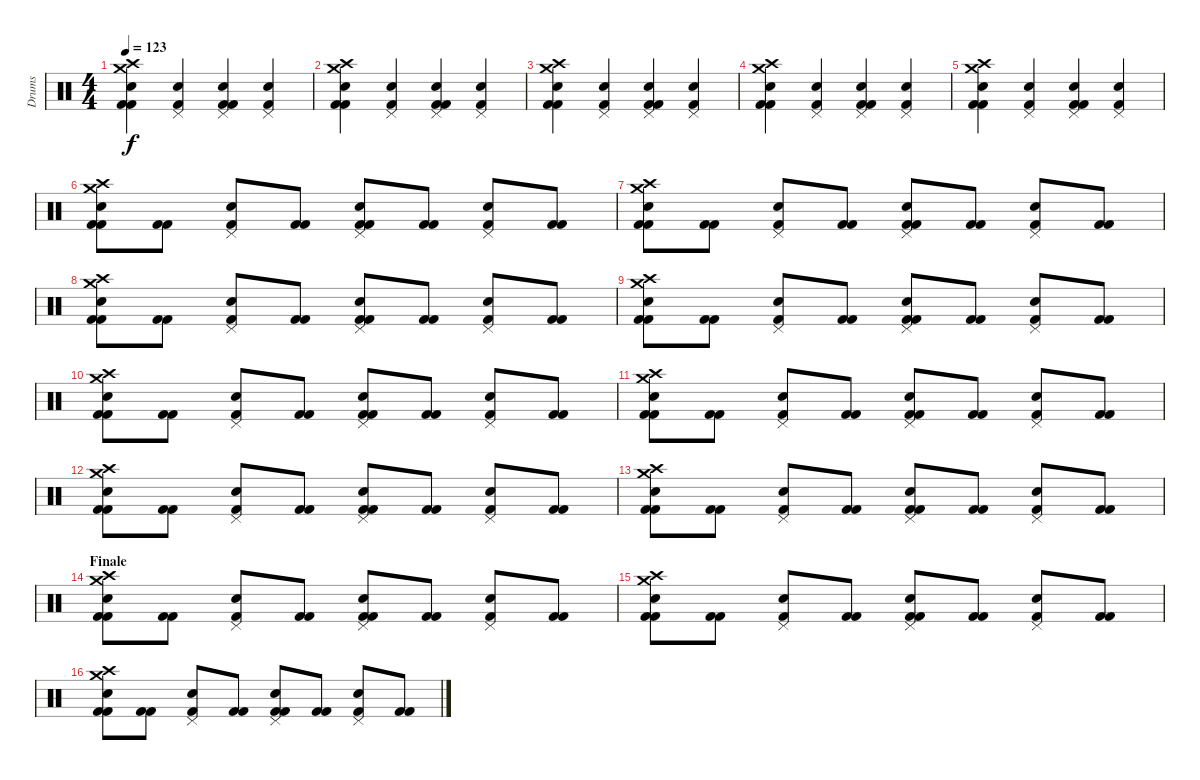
\track ("Drums" "Drums") {instrument percussion}
\staff {score}
\articulation defaults
\ts (4 4)
\tempo 123
\clef neutral
\ks c
("Crash medium (hit)" "Crash high (hit)" "Snare (hit) 2" "Kick (hit) 2" "Kick (hit) 2").4{dy f} ("Pedal Hi-Hat (hit)" "Snare (hit) 2" "Kick (hit) 2").4 ("Pedal Hi-Hat (hit)" "Snare (hit) 2" "Kick (hit) 2" "Kick (hit) 2").4 ("Pedal Hi-Hat (hit)" "Snare (hit) 2" "Kick (hit) 2").4 |
("Crash medium (hit)" "Crash high (hit)" "Snare (hit) 2" "Kick (hit) 2" "Kick (hit) 2").4 ("Pedal Hi-Hat (hit)" "Snare (hit) 2" "Kick (hit) 2").4 ("Pedal Hi-Hat (hit)" "Snare (hit) 2" "Kick (hit) 2" "Kick (hit) 2").4 ("Pedal Hi-Hat (hit)" "Snare (hit) 2" "Kick (hit) 2").4 |
("Crash medium (hit)" "Crash high (hit)" "Snare (hit) 2" "Kick (hit) 2" "Kick (hit) 2").4 ("Pedal Hi-Hat (hit)" "Snare (hit) 2" "Kick (hit) 2").4 ("Pedal Hi-Hat (hit)" "Snare (hit) 2" "Kick (hit) 2" "Kick (hit) 2").4 ("Pedal Hi-Hat (hit)" "Snare (hit) 2" "Kick (hit) 2").4 |
("Crash medium (hit)" "Crash high (hit)" "Snare (hit) 2" "Kick (hit) 2" "Kick (hit) 2").4 ("Pedal Hi-Hat (hit)" "Snare (hit) 2" "Kick (hit) 2").4 ("Pedal Hi-Hat (hit)" "Snare (hit) 2" "Kick (hit) 2" "Kick (hit) 2").4 ("Pedal Hi-Hat (hit)" "Snare (hit) 2" "Kick (hit) 2").4 |
("Crash medium (hit)" "Crash high (hit)" "Snare (hit) 2" "Kick (hit) 2" "Kick (hit) 2").4 ("Pedal Hi-Hat (hit)" "Snare (hit) 2" "Kick (hit) 2").4 ("Pedal Hi-Hat (hit)" "Snare (hit) 2" "Kick (hit) 2" "Kick (hit) 2").4 ("Pedal Hi-Hat (hit)" "Snare (hit) 2" "Kick (hit) 2").4 |
("Crash medium (hit)" "Crash high (hit)" "Snare (hit) 2" "Kick (hit) 2" "Kick (hit) 2").8 ("Kick (hit) 2" "Kick (hit) 2").8 ("Pedal Hi-Hat (hit)" "Snare (hit) 2" "Kick (hit) 2").8 ("Kick (hit) 2" "Kick (hit) 2").8 ("Pedal Hi-Hat (hit)" "Snare (hit) 2" "Kick (hit) 2" "Kick (hit) 2").8 ("Kick (hit) 2" "Kick (hit) 2").8 ("Pedal Hi-Hat (hit)" "Snare (hit) 2" "Kick (hit) 2").8 ("Kick (hit) 2" "Kick (hit) 2").8 |
("Crash medium (hit)" "Crash high (hit)" "Snare (hit) 2" "Kick (hit) 2" "Kick (hit) 2").8 ("Kick (hit) 2" "Kick (hit) 2").8 ("Pedal Hi-Hat (hit)" "Snare (hit) 2" "Kick (hit) 2").8 ("Kick (hit) 2" "Kick (hit) 2").8 ("Pedal Hi-Hat (hit)" "Snare (hit) 2" "Kick (hit) 2" "Kick (hit) 2").8 ("Kick (hit) 2" "Kick (hit) 2").8 ("Pedal Hi-Hat (hit)" "Snare (hit) 2" "Kick (hit) 2").8 ("Kick (hit) 2" "Kick (hit) 2").8 |
("Crash medium (hit)" "Crash high (hit)" "Snare (hit) 2" "Kick (hit) 2" "Kick (hit) 2").8 ("Kick (hit) 2" "Kick (hit) 2").8 ("Pedal Hi-Hat (hit)" "Snare (hit) 2" "Kick (hit) 2").8 ("Kick (hit) 2" "Kick (hit) 2").8 ("Pedal Hi-Hat (hit)" "Snare (hit) 2" "Kick (hit) 2" "Kick (hit) 2").8 ("Kick (hit) 2" "Kick (hit) 2").8 ("Pedal Hi-Hat (hit)" "Snare (hit) 2" "Kick (hit) 2").8 ("Kick (hit) 2" "Kick (hit) 2").8 |
("Crash medium (hit)" "Crash high (hit)" "Snare (hit) 2" "Kick (hit) 2" "Kick (hit) 2").8 ("Kick (hit) 2" "Kick (hit) 2").8 ("Pedal Hi-Hat (hit)" "Snare (hit) 2" "Kick (hit) 2").8 ("Kick (hit) 2" "Kick (hit) 2").8 ("Pedal Hi-Hat (hit)" "Snare (hit) 2" "Kick (hit) 2" "Kick (hit) 2").8 ("Kick (hit) 2" "Kick (hit) 2").8 ("Pedal Hi-Hat (hit)" "Snare (hit) 2" "Kick (hit) 2").8 ("Kick (hit) 2" "Kick (hit) 2").8 |
("Crash medium (hit)" "Crash high (hit)" "Snare (hit) 2" "Kick (hit) 2" "Kick (hit) 2").8 ("Kick (hit) 2" "Kick (hit) 2").8 ("Pedal Hi-Hat (hit)" "Snare (hit) 2" "Kick (hit) 2").8 ("Kick (hit) 2" "Kick (hit) 2").8 ("Pedal Hi-Hat (hit)" "Snare (hit) 2" "Kick (hit) 2" "Kick (hit) 2").8 ("Kick (hit) 2" "Kick (hit) 2").8 ("Pedal Hi-Hat (hit)" "Snare (hit) 2" "Kick (hit) 2").8 ("Kick (hit) 2" "Kick (hit) 2").8 |
("Crash medium (hit)" "Crash high (hit)" "Snare (hit) 2" "Kick (hit) 2" "Kick (hit) 2").8 ("Kick (hit) 2" "Kick (hit) 2").8 ("Pedal Hi-Hat (hit)" "Snare (hit) 2" "Kick (hit) 2").8 ("Kick (hit) 2" "Kick (hit) 2").8 ("Pedal Hi-Hat (hit)" "Snare (hit) 2" "Kick (hit) 2" "Kick (hit) 2").8 ("Kick (hit) 2" "Kick (hit) 2").8 ("Pedal Hi-Hat (hit)" "Snare (hit) 2" "Kick (hit) 2").8 ("Kick (hit) 2" "Kick (hit) 2").8 |
("Crash medium (hit)" "Crash high (hit)" "Snare (hit) 2" "Kick (hit) 2" "Kick (hit) 2").8 ("Kick (hit) 2" "Kick (hit) 2").8 ("Pedal Hi-Hat (hit)" "Snare (hit) 2" "Kick (hit) 2").8 ("Kick (hit) 2" "Kick (hit) 2").8 ("Pedal Hi-Hat (hit)" "Snare (hit) 2" "Kick (hit) 2" "Kick (hit) 2").8 ("Kick (hit) 2" "Kick (hit) 2").8 ("Pedal Hi-Hat (hit)" "Snare (hit) 2" "Kick (hit) 2").8 ("Kick (hit) 2" "Kick (hit) 2").8 |
("Crash medium (hit)" "Crash high (hit)" "Snare (hit) 2" "Kick (hit) 2" "Kick (hit) 2").8 ("Kick (hit) 2" "Kick (hit) 2").8 ("Pedal Hi-Hat (hit)" "Snare (hit) 2" "Kick (hit) 2").8 ("Kick (hit) 2" "Kick (hit) 2").8 ("Pedal Hi-Hat (hit)" "Snare (hit) 2" "Kick (hit) 2" "Kick (hit) 2").8 ("Kick (hit) 2" "Kick (hit) 2").8 ("Pedal Hi-Hat (hit)" "Snare (hit) 2" "Kick (hit) 2").8 ("Kick (hit) 2" "Kick (hit) 2").8 |
\section ("" "Finale")
("Crash medium (hit)" "Crash high (hit)" "Snare (hit) 2" "Kick (hit) 2" "Kick (hit) 2").8 ("Kick (hit) 2" "Kick (hit) 2").8 ("Pedal Hi-Hat (hit)" "Snare (hit) 2" "Kick (hit) 2").8 ("Kick (hit) 2" "Kick (hit) 2").8 ("Pedal Hi-Hat (hit)" "Snare (hit) 2" "Kick (hit) 2" "Kick (hit) 2").8 ("Kick (hit) 2" "Kick (hit) 2").8 ("Pedal Hi-Hat (hit)" "Snare (hit) 2" "Kick (hit) 2").8 ("Kick (hit) 2" "Kick (hit) 2").8 |
("Crash medium (hit)" "Crash high (hit)" "Snare (hit) 2" "Kick (hit) 2" "Kick (hit) 2").8 ("Kick (hit) 2" "Kick (hit) 2").8 ("Pedal Hi-Hat (hit)" "Snare (hit) 2" "Kick (hit) 2").8 ("Kick (hit) 2" "Kick (hit) 2").8 ("Pedal Hi-Hat (hit)" "Snare (hit) 2" "Kick (hit) 2" "Kick (hit) 2").8 ("Kick (hit) 2" "Kick (hit) 2").8 ("Pedal Hi-Hat (hit)" "Snare (hit) 2" "Kick (hit) 2").8 ("Kick (hit) 2" "Kick (hit) 2").8 |
("Crash medium (hit)" "Crash high (hit)" "Snare (hit) 2" "Kick (hit) 2" "Kick (hit) 2").8 ("Kick (hit) 2" "Kick (hit) 2").8 ("Pedal Hi-Hat (hit)" "Snare (hit) 2" "Kick (hit) 2").8 ("Kick (hit) 2" "Kick (hit) 2").8 ("Pedal Hi-Hat (hit)" "Snare (hit) 2" "Kick (hit) 2" "Kick (hit) 2").8 ("Kick (hit) 2" "Kick (hit) 2").8 ("Pedal Hi-Hat (hit)" "Snare (hit) 2" "Kick (hit) 2").8 ("Kick (hit) 2" "Kick (hit) 2").8
